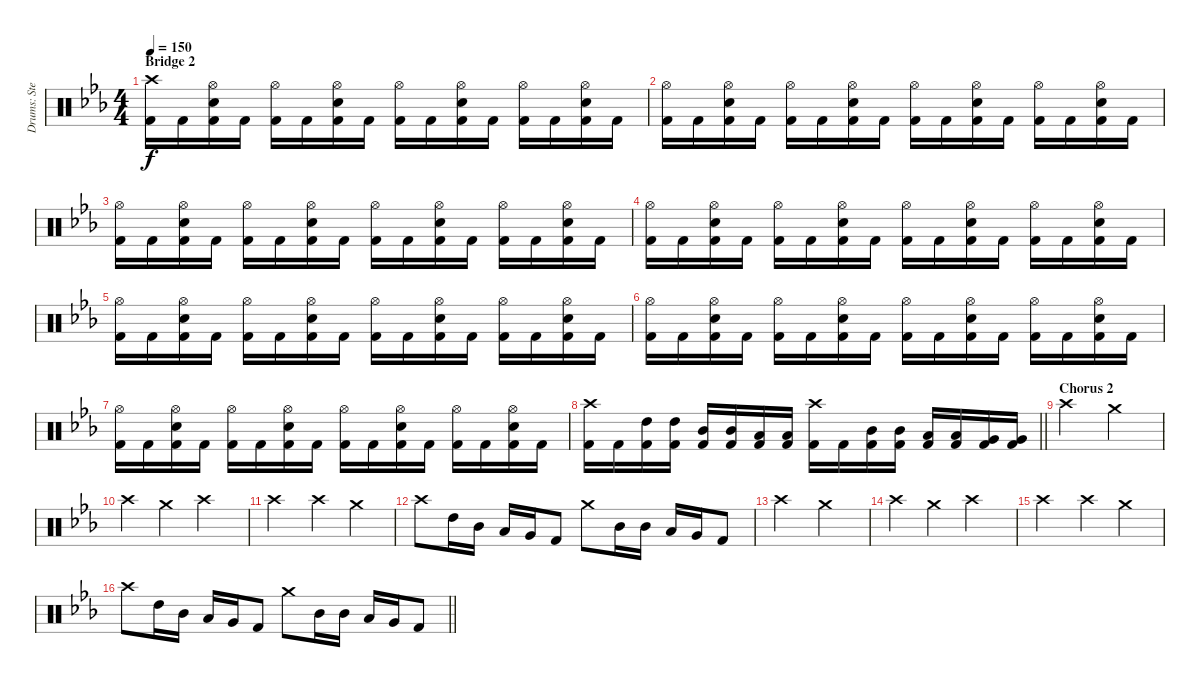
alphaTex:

\track ("Drums: Stefan Svantesson" "Drums: Ste") {instrument percussion}
\staff {score}
\articulation defaults
\ts (4 4)
\section ("" "Bridge 2")
\tempo 150
\clef neutral
\ks cminor
("Crash high (hit)" "Kick (hit) 2").16{dy f} "Kick (hit) 2".16 ("Hi-Hat (open)" "Electric Snare (hit)" "Kick (hit) 2").16 "Kick (hit) 2".16 ("Hi-Hat (open)" "Kick (hit) 2").16 "Kick (hit) 2".16 ("Hi-Hat (open)" "Electric Snare (hit)" "Kick (hit) 2").16 "Kick (hit) 2".16 ("Hi-Hat (open)" "Kick (hit) 2").16 "Kick (hit) 2".16 ("Hi-Hat (open)" "Electric Snare (hit)" "Kick (hit) 2").16 "Kick (hit) 2".16 ("Hi-Hat (open)" "Kick (hit) 2").16 "Kick (hit) 2".16 ("Hi-Hat (open)" "Electric Snare (hit)" "Kick (hit) 2").16 "Kick (hit) 2".16 |
("Hi-Hat (open)" "Kick (hit) 2").16 "Kick (hit) 2".16 ("Hi-Hat (open)" "Electric Snare (hit)" "Kick (hit) 2").16 "Kick (hit) 2".16 ("Hi-Hat (open)" "Kick (hit) 2").16 "Kick (hit) 2".16 ("Hi-Hat (open)" "Electric Snare (hit)" "Kick (hit) 2").16 "Kick (hit) 2".16 ("Hi-Hat (open)" "Kick (hit) 2").16 "Kick (hit) 2".16 ("Hi-Hat (open)" "Electric Snare (hit)" "Kick (hit) 2").16 "Kick (hit) 2".16 ("Hi-Hat (open)" "Kick (hit) 2").16 "Kick (hit) 2".16 ("Hi-Hat (open)" "Electric Snare (hit)" "Kick (hit) 2").16 "Kick (hit) 2".16 |
("Hi-Hat (open)" "Kick (hit) 2").16 "Kick (hit) 2".16 ("Hi-Hat (open)" "Electric Snare (hit)" "Kick (hit) 2").16 "Kick (hit) 2".16 ("Hi-Hat (open)" "Kick (hit) 2").16 "Kick (hit) 2".16 ("Hi-Hat (open)" "Electric Snare (hit)" "Kick (hit) 2").16 "Kick (hit) 2".16 ("Hi-Hat (open)" "Kick (hit) 2").16 "Kick (hit) 2".16 ("Hi-Hat (open)" "Electric Snare (hit)" "Kick (hit) 2").16 "Kick (hit) 2".16 ("Hi-Hat (open)" "Kick (hit) 2").16 "Kick (hit) 2".16 ("Hi-Hat (open)" "Electric Snare (hit)" "Kick (hit) 2").16 "Kick (hit) 2".16 |
("Hi-Hat (open)" "Kick (hit) 2").16 "Kick (hit) 2".16 ("Hi-Hat (open)" "Electric Snare (hit)" "Kick (hit) 2").16 "Kick (hit) 2".16 ("Hi-Hat (open)" "Kick (hit) 2").16 "Kick (hit) 2".16 ("Hi-Hat (open)" "Electric Snare (hit)" "Kick (hit) 2").16 "Kick (hit) 2".16 ("Hi-Hat (open)" "Kick (hit) 2").16 "Kick (hit) 2".16 ("Hi-Hat (open)" "Electric Snare (hit)" "Kick (hit) 2").16 "Kick (hit) 2".16 ("Hi-Hat (open)" "Kick (hit) 2").16 "Kick (hit) 2".16 ("Hi-Hat (open)" "Electric Snare (hit)" "Kick (hit) 2").16 "Kick (hit) 2".16 |
("Hi-Hat (open)" "Kick (hit) 2").16 "Kick (hit) 2".16 ("Hi-Hat (open)" "Electric Snare (hit)" "Kick (hit) 2").16 "Kick (hit) 2".16 ("Hi-Hat (open)" "Kick (hit) 2").16 "Kick (hit) 2".16 ("Hi-Hat (open)" "Electric Snare (hit)" "Kick (hit) 2").16 "Kick (hit) 2".16 ("Hi-Hat (open)" "Kick (hit) 2").16 "Kick (hit) 2".16 ("Hi-Hat (open)" "Electric Snare (hit)" "Kick (hit) 2").16 "Kick (hit) 2".16 ("Hi-Hat (open)" "Kick (hit) 2").16 "Kick (hit) 2".16 ("Hi-Hat (open)" "Electric Snare (hit)" "Kick (hit) 2").16 "Kick (hit) 2".16 |
("Hi-Hat (open)" "Kick (hit) 2").16 "Kick (hit) 2".16 ("Hi-Hat (open)" "Electric Snare (hit)" "Kick (hit) 2").16 "Kick (hit) 2".16 ("Hi-Hat (open)" "Kick (hit) 2").16 "Kick (hit) 2".16 ("Hi-Hat (open)" "Electric Snare (hit)" "Kick (hit) 2").16 "Kick (hit) 2".16 ("Hi-Hat (open)" "Kick (hit) 2").16 "Kick (hit) 2".16 ("Hi-Hat (open)" "Electric Snare (hit)" "Kick (hit) 2").16 "Kick (hit) 2".16 ("Hi-Hat (open)" "Kick (hit) 2").16 "Kick (hit) 2".16 ("Hi-Hat (open)" "Electric Snare (hit)" "Kick (hit) 2").16 "Kick (hit) 2".16 |
("Hi-Hat (open)" "Kick (hit) 2").16 "Kick (hit) 2".16 ("Hi-Hat (open)" "Electric Snare (hit)" "Kick (hit) 2").16 "Kick (hit) 2".16 ("Hi-Hat (open)" "Kick (hit) 2").16 "Kick (hit) 2".16 ("Hi-Hat (open)" "Electric Snare (hit)" "Kick (hit) 2").16 "Kick (hit) 2".16 ("Hi-Hat (open)" "Kick (hit) 2").16 "Kick (hit) 2".16 ("Hi-Hat (open)" "Electric Snare (hit)" "Kick (hit) 2").16 "Kick (hit) 2".16 ("Hi-Hat (open)" "Kick (hit) 2").16 "Kick (hit) 2".16 ("Hi-Hat (open)" "Electric Snare (hit)" "Kick (hit) 2").16 "Kick (hit) 2".16 |
\barLineRight lightlight
("Crash high (hit)" "Kick (hit) 2").16 "Kick (hit) 2".16 ("High Tom (hit)" "Kick (hit) 2").16 ("High Tom (hit)" "Kick (hit) 2").16 ("Mid Tom (hit)" "Kick (hit) 2").16 ("Mid Tom (hit)" "Kick (hit) 2").16 ("Low Tom (hit)" "Kick (hit) 2").16 ("Low Tom (hit)" "Kick (hit) 2").16 ("Crash high (hit)" "Kick (hit) 2").16 "Kick (hit) 2".16 ("Mid Tom (hit)" "Kick (hit) 2").16 ("Mid Tom (hit)" "Kick (hit) 2").16 ("Low Tom (hit)" "Kick (hit) 2").16 ("Low Tom (hit)" "Kick (hit) 2").16 ("Very Low Tom (hit)" "Kick (hit) 2").16 ("Very Low Tom (hit)" "Kick (hit) 2").16 |
\section ("" "Chorus 2")
"Crash high (hit)".2 "Crash medium (hit)".2 |
"Crash high (hit)".4 "Crash medium (hit)".4 "Crash high (hit)".2 |
"Crash high (hit)".2 "Crash high (hit)".4 "Crash medium (hit)".4 |
"Crash high (hit)".8 "High Tom (hit)".16 "Mid Tom (hit)".16 "Low Tom (hit)".16 "Very Low Tom (hit)".16 "Kick (hit) 2".8 "Crash medium (hit)".8 "Mid Tom (hit)".16 "Mid Tom (hit)".16 "Low Tom (hit)".16 "Very Low Tom (hit)".16 "Kick (hit) 2".8 |
"Crash high (hit)".2 "Crash medium (hit)".2 |
"Crash high (hit)".4 "Crash medium (hit)".4 "Crash high (hit)".2 |
"Crash high (hit)".2 "Crash high (hit)".4 "Crash medium (hit)".4 |
\barLineRight lightlight "Crash high (hit)".8 "High Tom (hit)".16 "Mid Tom (hit)".16 "Low Tom (hit)".16 "Very Low Tom (hit)".16 "Kick (hit) 2".8 "Crash medium (hit)".8 "Mid Tom (hit)".16 "Mid Tom (hit)".16 "Low Tom (hit)".16 "Very Low Tom (hit)".16 "Kick (hit) 2".8
